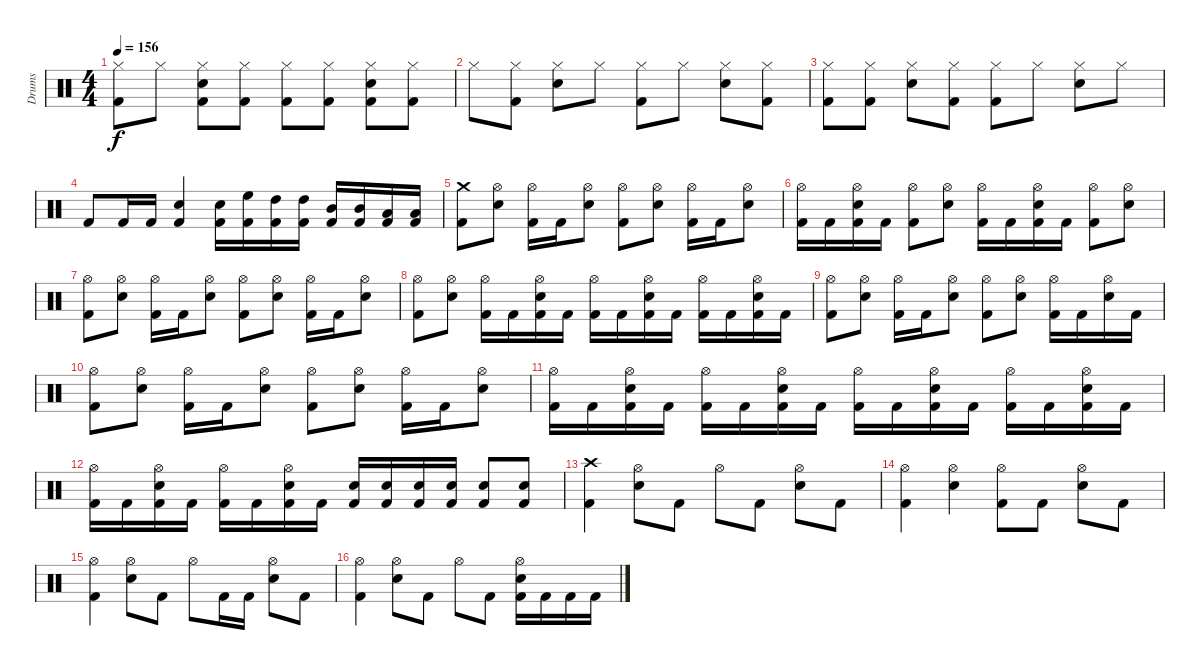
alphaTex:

\track ("Drums" "Drums") {instrument percussion}
\staff {score}
\articulation defaults
\ts (4 4)
\tempo 156
\clef neutral
\ks c
("Kick (hit) 2" "Hi-Hat (closed)").8{dy f} "Hi-Hat (closed)".8 ("Kick (hit) 2" "Snare (hit) 2" "Hi-Hat (closed)").8 ("Kick (hit) 2" "Hi-Hat (closed)").8 ("Kick (hit) 2" "Hi-Hat (closed)").8 ("Kick (hit) 2" "Hi-Hat (closed)").8 ("Kick (hit) 2" "Snare (hit) 2" "Hi-Hat (closed)").8 ("Kick (hit) 2" "Hi-Hat (closed)").8 |
"Hi-Hat (closed)".8 ("Kick (hit) 2" "Hi-Hat (closed)").8 ("Snare (hit) 2" "Hi-Hat (closed)").8 "Hi-Hat (closed)".8 ("Kick (hit) 2" "Hi-Hat (closed)").8 "Hi-Hat (closed)".8 ("Snare (hit) 2" "Hi-Hat (closed)").8 ("Kick (hit) 2" "Hi-Hat (closed)").8 |
("Kick (hit) 2" "Hi-Hat (closed)").8 ("Kick (hit) 2" "Hi-Hat (closed)").8 ("Snare (hit) 2" "Hi-Hat (closed)").8 ("Kick (hit) 2" "Hi-Hat (closed)").8 ("Kick (hit) 2" "Hi-Hat (closed)").8 "Hi-Hat (closed)".8 ("Snare (hit) 2" "Hi-Hat (closed)").8 "Hi-Hat (closed)".8 |
"Kick (hit) 2".8 "Kick (hit) 2".16 "Kick (hit) 2".16 ("Kick (hit) 2" "Snare (hit) 2").4 ("Kick (hit) 2" "Snare (hit) 2").16 ("Kick (hit) 2" "High Floor Tom (hit)").16 ("Kick (hit) 2" "High Tom (hit)").16 ("Kick (hit) 2" "High Tom (hit)").16 ("Kick (hit) 2" "Mid Tom (hit)").16 ("Kick (hit) 2" "Mid Tom (hit)").16 ("Kick (hit) 2" "Low Tom (hit)").16 ("Kick (hit) 2" "Low Tom (hit)").16 |
\section ("" "")
("Kick (hit) 2" "Crash medium (hit)").8 ("Snare (hit) 2" "Hi-Hat (open)").8 ("Kick (hit) 2" "Hi-Hat (open)").16 "Kick (hit) 2".16 ("Snare (hit) 2" "Hi-Hat (open)").8 ("Kick (hit) 2" "Hi-Hat (open)").8 ("Snare (hit) 2" "Hi-Hat (open)").8 ("Kick (hit) 2" "Hi-Hat (open)").16 "Kick (hit) 2".16 ("Snare (hit) 2" "Hi-Hat (open)").8 |
("Kick (hit) 2" "Hi-Hat (open)").16 "Kick (hit) 2".16 ("Kick (hit) 2" "Snare (hit) 2" "Hi-Hat (open)").16 "Kick (hit) 2".16 ("Kick (hit) 2" "Hi-Hat (open)").8 ("Snare (hit) 2" "Hi-Hat (open)").8 ("Kick (hit) 2" "Hi-Hat (open)").16 "Kick (hit) 2".16 ("Kick (hit) 2" "Snare (hit) 2" "Hi-Hat (open)").16 "Kick (hit) 2".16 ("Kick (hit) 2" "Hi-Hat (open)").8 ("Snare (hit) 2" "Hi-Hat (open)").8 |
("Kick (hit) 2" "Hi-Hat (open)").8 ("Snare (hit) 2" "Hi-Hat (open)").8 ("Kick (hit) 2" "Hi-Hat (open)").16 "Kick (hit) 2".16 ("Snare (hit) 2" "Hi-Hat (open)").8 ("Kick (hit) 2" "Hi-Hat (open)").8 ("Snare (hit) 2" "Hi-Hat (open)").8 ("Kick (hit) 2" "Hi-Hat (open)").16 "Kick (hit) 2".16 ("Snare (hit) 2" "Hi-Hat (open)").8 |
("Kick (hit) 2" "Hi-Hat (open)").8 ("Snare (hit) 2" "Hi-Hat (open)").8 ("Kick (hit) 2" "Hi-Hat (open)").16 "Kick (hit) 2".16 ("Kick (hit) 2" "Snare (hit) 2" "Hi-Hat (open)").16 "Kick (hit) 2".16 ("Kick (hit) 2" "Hi-Hat (open)").16 "Kick (hit) 2".16 ("Kick (hit) 2" "Snare (hit) 2" "Hi-Hat (open)").16 "Kick (hit) 2".16 ("Kick (hit) 2" "Hi-Hat (open)").16 "Kick (hit) 2".16 ("Kick (hit) 2" "Snare (hit) 2" "Hi-Hat (open)").16 "Kick (hit) 2".16 |
("Kick (hit) 2" "Hi-Hat (open)").8 ("Snare (hit) 2" "Hi-Hat (open)").8 ("Kick (hit) 2" "Hi-Hat (open)").16 "Kick (hit) 2".16 ("Snare (hit) 2" "Hi-Hat (open)").8 ("Kick (hit) 2" "Hi-Hat (open)").8 ("Snare (hit) 2" "Hi-Hat (open)").8 ("Kick (hit) 2" "Hi-Hat (open)").16 "Kick (hit) 2".16 ("Snare (hit) 2" "Hi-Hat (open)").16 "Kick (hit) 2".16 |
("Kick (hit) 2" "Hi-Hat (open)").8 ("Snare (hit) 2" "Hi-Hat (open)").8 ("Kick (hit) 2" "Hi-Hat (open)").16 "Kick (hit) 2".16 ("Snare (hit) 2" "Hi-Hat (open)").8 ("Kick (hit) 2" "Hi-Hat (open)").8 ("Snare (hit) 2" "Hi-Hat (open)").8 ("Kick (hit) 2" "Hi-Hat (open)").16 "Kick (hit) 2".16 ("Snare (hit) 2" "Hi-Hat (open)").8 |
("Kick (hit) 2" "Hi-Hat (open)").16 "Kick (hit) 2".16 ("Kick (hit) 2" "Snare (hit) 2" "Hi-Hat (open)").16 "Kick (hit) 2".16 ("Kick (hit) 2" "Hi-Hat (open)").16 "Kick (hit) 2".16 ("Kick (hit) 2" "Snare (hit) 2" "Hi-Hat (open)").16 "Kick (hit) 2".16 ("Kick (hit) 2" "Hi-Hat (open)").16 "Kick (hit) 2".16 ("Kick (hit) 2" "Snare (hit) 2" "Hi-Hat (open)").16 "Kick (hit) 2".16 ("Kick (hit) 2" "Hi-Hat (open)").16 "Kick (hit) 2".16 ("Kick (hit) 2" "Snare (hit) 2" "Hi-Hat (open)").16 "Kick (hit) 2".16 |
("Kick (hit) 2" "Hi-Hat (open)").16 "Kick (hit) 2".16 ("Kick (hit) 2" "Snare (hit) 2" "Hi-Hat (open)").16 "Kick (hit) 2".16 ("Kick (hit) 2" "Hi-Hat (open)").16 "Kick (hit) 2".16 ("Kick (hit) 2" "Snare (hit) 2" "Hi-Hat (open)").16 "Kick (hit) 2".16 ("Kick (hit) 2" "Snare (hit) 2").16 ("Kick (hit) 2" "Snare (hit) 2").16 ("Kick (hit) 2" "Snare (hit) 2").16 ("Kick (hit) 2" "Snare (hit) 2").16 ("Kick (hit) 2" "Snare (hit) 2").8 ("Kick (hit) 2" "Snare (hit) 2").8 |
\section ("" "")
("Kick (hit) 2" "Crash high (hit)").4 ("Snare (hit) 2" "Hi-Hat (open)").8 "Kick (hit) 2".8 "Hi-Hat (open)".8 "Kick (hit) 2".8 ("Snare (hit) 2" "Hi-Hat (open)").8 "Kick (hit) 2".8 |
("Kick (hit) 2" "Hi-Hat (open)").4 ("Snare (hit) 2" "Hi-Hat (open)").4 ("Kick (hit) 2" "Hi-Hat (open)").8 "Kick (hit) 2".8 ("Snare (hit) 2" "Hi-Hat (open)").8 "Kick (hit) 2".8 |
("Kick (hit) 2" "Hi-Hat (open)").4 ("Snare (hit) 2" "Hi-Hat (open)").8 "Kick (hit) 2".8 "Hi-Hat (open)".8 "Kick (hit) 2".16 "Kick (hit) 2".16 ("Snare (hit) 2" "Hi-Hat (open)").8 "Kick (hit) 2".8 |
("Kick (hit) 2" "Hi-Hat (open)").4 ("Snare (hit) 2" "Hi-Hat (open)").8 "Kick (hit) 2".8 "Hi-Hat (open)".8 "Kick (hit) 2".8 ("Kick (hit) 2" "Snare (hit) 2" "Hi-Hat (open)").16 "Kick (hit) 2".16 "Kick (hit) 2".16 "Kick (hit) 2".16
